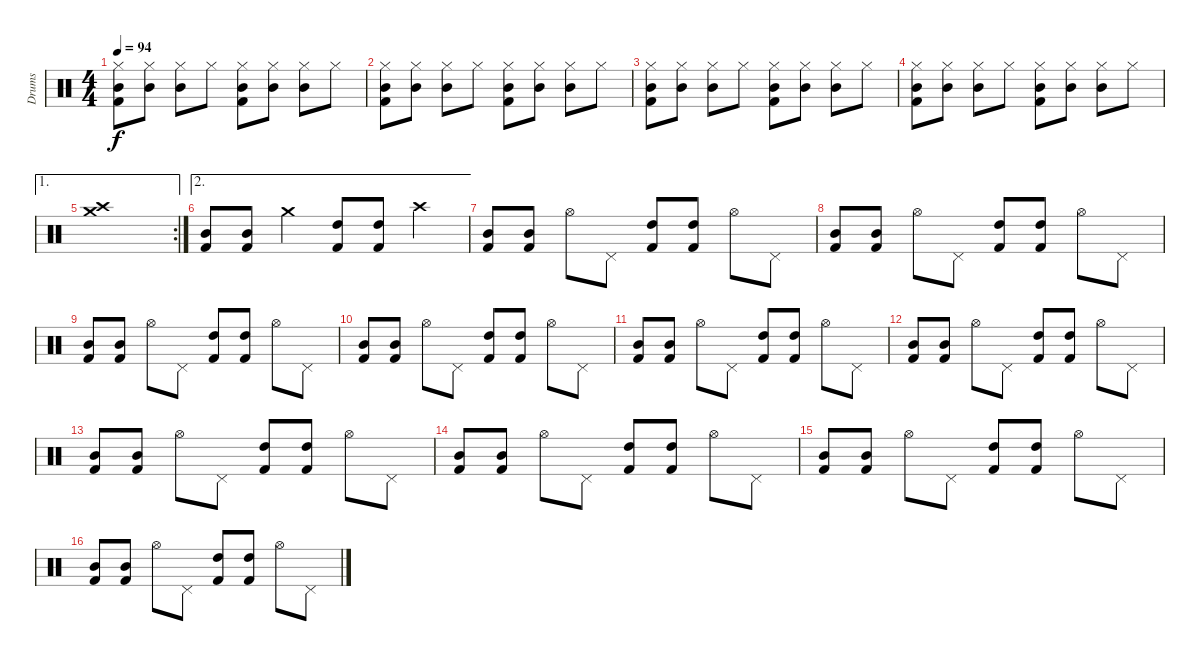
\track ("Drums" "Drums") {instrument percussion}
\staff {score}
\articulation defaults
\ts (4 4)
\tempo 94
\clef neutral
\ks c
("Hi-Hat (closed)" "Mid Tom (hit)" "Kick (hit) 2").8{dy f} ("Hi-Hat (closed)" "Mid Tom (hit)").8 ("Hi-Hat (closed)" "Mid Tom (hit)").8 "Hi-Hat (closed)".8 ("Hi-Hat (closed)" "Mid Tom (hit)" "Kick (hit) 2").8 ("Hi-Hat (closed)" "Mid Tom (hit)").8 ("Hi-Hat (closed)" "Mid Tom (hit)").8 "Hi-Hat (closed)".8 |
("Hi-Hat (closed)" "Mid Tom (hit)" "Kick (hit) 2").8 ("Hi-Hat (closed)" "Mid Tom (hit)").8 ("Hi-Hat (closed)" "Mid Tom (hit)").8 "Hi-Hat (closed)".8 ("Hi-Hat (closed)" "Mid Tom (hit)" "Kick (hit) 2").8 ("Hi-Hat (closed)" "Mid Tom (hit)").8 ("Hi-Hat (closed)" "Mid Tom (hit)").8 "Hi-Hat (closed)".8 |
("Hi-Hat (closed)" "Mid Tom (hit)" "Kick (hit) 2").8 ("Hi-Hat (closed)" "Mid Tom (hit)").8 ("Hi-Hat (closed)" "Mid Tom (hit)").8 "Hi-Hat (closed)".8 ("Hi-Hat (closed)" "Mid Tom (hit)" "Kick (hit) 2").8 ("Hi-Hat (closed)" "Mid Tom (hit)").8 ("Hi-Hat (closed)" "Mid Tom (hit)").8 "Hi-Hat (closed)".8 |
("Hi-Hat (closed)" "Mid Tom (hit)" "Kick (hit) 2").8 ("Hi-Hat (closed)" "Mid Tom (hit)").8 ("Hi-Hat (closed)" "Mid Tom (hit)").8 "Hi-Hat (closed)".8 ("Hi-Hat (closed)" "Mid Tom (hit)" "Kick (hit) 2").8 ("Hi-Hat (closed)" "Mid Tom (hit)").8 ("Hi-Hat (closed)" "Mid Tom (hit)").8 "Hi-Hat (closed)".8 |
\ae 1
\rc 2
("Crash high (hit)" "Crash medium (hit)").1 |
\ae 2
("Mid Tom (hit)" "Kick (hit) 2").8 ("Mid Tom (hit)" "Kick (hit) 2").8 "Crash medium (hit)".4 ("High Tom (hit)" "Kick (hit) 2").8 ("High Tom (hit)" "Kick (hit) 2").8 "Crash high (hit)".4 |
("Mid Tom (hit)" "Kick (hit) 2").8 ("Mid Tom (hit)" "Kick (hit) 2").8 "Hi-Hat (open)".8 "Pedal Hi-Hat (hit)".8 ("High Tom (hit)" "Kick (hit) 2").8 ("High Tom (hit)" "Kick (hit) 2").8 "Hi-Hat (open)".8 "Pedal Hi-Hat (hit)".8 |
("Mid Tom (hit)" "Kick (hit) 2").8 ("Mid Tom (hit)" "Kick (hit) 2").8 "Hi-Hat (open)".8 "Pedal Hi-Hat (hit)".8 ("High Tom (hit)" "Kick (hit) 2").8 ("High Tom (hit)" "Kick (hit) 2").8 "Hi-Hat (open)".8 "Pedal Hi-Hat (hit)".8 |
("Mid Tom (hit)" "Kick (hit) 2").8 ("Mid Tom (hit)" "Kick (hit) 2").8 "Hi-Hat (open)".8 "Pedal Hi-Hat (hit)".8 ("High Tom (hit)" "Kick (hit) 2").8 ("High Tom (hit)" "Kick (hit) 2").8 "Hi-Hat (open)".8 "Pedal Hi-Hat (hit)".8 |
("Mid Tom (hit)" "Kick (hit) 2").8 ("Mid Tom (hit)" "Kick (hit) 2").8 "Hi-Hat (open)".8 "Pedal Hi-Hat (hit)".8 ("High Tom (hit)" "Kick (hit) 2").8 ("High Tom (hit)" "Kick (hit) 2").8 "Hi-Hat (open)".8 "Pedal Hi-Hat (hit)".8 |
("Mid Tom (hit)" "Kick (hit) 2").8 ("Mid Tom (hit)" "Kick (hit) 2").8 "Hi-Hat (open)".8 "Pedal Hi-Hat (hit)".8 ("High Tom (hit)" "Kick (hit) 2").8 ("High Tom (hit)" "Kick (hit) 2").8 "Hi-Hat (open)".8 "Pedal Hi-Hat (hit)".8 |
("Mid Tom (hit)" "Kick (hit) 2").8 ("Mid Tom (hit)" "Kick (hit) 2").8 "Hi-Hat (open)".8 "Pedal Hi-Hat (hit)".8 ("High Tom (hit)" "Kick (hit) 2").8 ("High Tom (hit)" "Kick (hit) 2").8 "Hi-Hat (open)".8 "Pedal Hi-Hat (hit)".8 |
("Mid Tom (hit)" "Kick (hit) 2").8 ("Mid Tom (hit)" "Kick (hit) 2").8 "Hi-Hat (open)".8 "Pedal Hi-Hat (hit)".8 ("High Tom (hit)" "Kick (hit) 2").8 ("High Tom (hit)" "Kick (hit) 2").8 "Hi-Hat (open)".8 "Pedal Hi-Hat (hit)".8 |
("Mid Tom (hit)" "Kick (hit) 2").8 ("Mid Tom (hit)" "Kick (hit) 2").8 "Hi-Hat (open)".8 "Pedal Hi-Hat (hit)".8 ("High Tom (hit)" "Kick (hit) 2").8 ("High Tom (hit)" "Kick (hit) 2").8 "Hi-Hat (open)".8 "Pedal Hi-Hat (hit)".8 |
("Mid Tom (hit)" "Kick (hit) 2").8 ("Mid Tom (hit)" "Kick (hit) 2").8 "Hi-Hat (open)".8 "Pedal Hi-Hat (hit)".8 ("High Tom (hit)" "Kick (hit) 2").8 ("High Tom (hit)" "Kick (hit) 2").8 "Hi-Hat (open)".8 "Pedal Hi-Hat (hit)".8 |
("Mid Tom (hit)" "Kick (hit) 2").8 ("Mid Tom (hit)" "Kick (hit) 2").8 "Hi-Hat (open)".8 "Pedal Hi-Hat (hit)".8 ("High Tom (hit)" "Kick (hit) 2").8 ("High Tom (hit)" "Kick (hit) 2").8 "Hi-Hat (open)".8 "Pedal Hi-Hat (hit)".8
